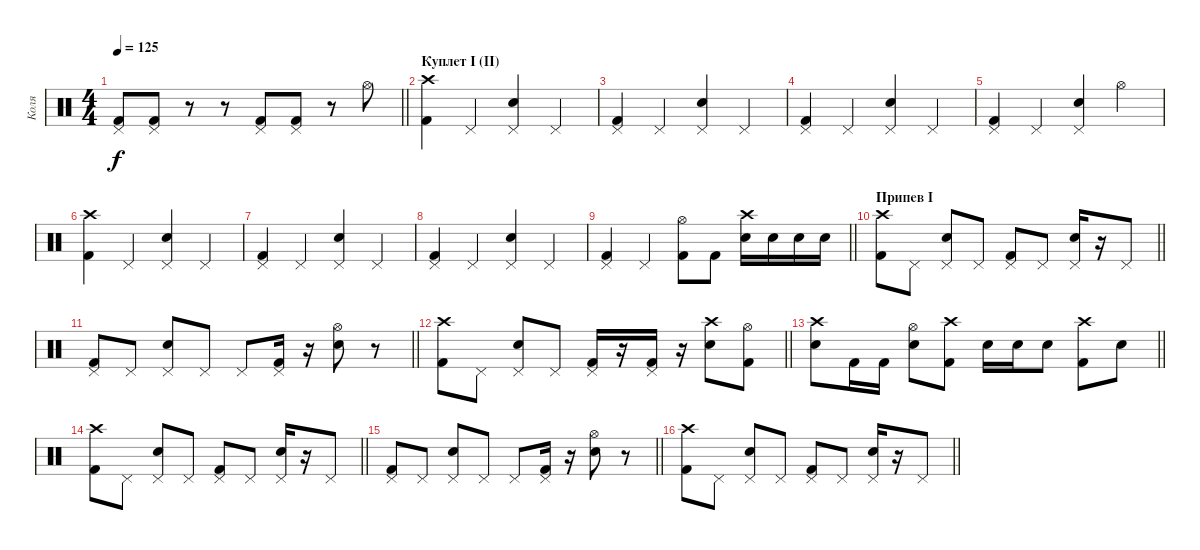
\track ("Коля" "Коля") {instrument percussion}
\staff {score}
\articulation defaults
\ts (4 4)
\tempo 125
\clef neutral
\barLineRight lightlight
\ks c
("Pedal Hi-Hat (hit)" "Kick (hit) 2").8{dy f} ("Pedal Hi-Hat (hit)" "Kick (hit) 2").8 r.8 r.8 ("Pedal Hi-Hat (hit)" "Kick (hit) 2").8 ("Pedal Hi-Hat (hit)" "Kick (hit) 2").8 r.8 "Hi-Hat (open)".8 |
\section ("" "Куплет I (II)")
("Kick (hit) 2" "Crash high (hit)").4 "Pedal Hi-Hat (hit)".4 ("Electric Snare (hit)" "Pedal Hi-Hat (hit)").4 "Pedal Hi-Hat (hit)".4 |
("Kick (hit) 2" "Pedal Hi-Hat (hit)").4 "Pedal Hi-Hat (hit)".4 ("Electric Snare (hit)" "Pedal Hi-Hat (hit)").4 "Pedal Hi-Hat (hit)".4 |
("Kick (hit) 2" "Pedal Hi-Hat (hit)").4 "Pedal Hi-Hat (hit)".4 ("Electric Snare (hit)" "Pedal Hi-Hat (hit)").4 "Pedal Hi-Hat (hit)".4 |
("Kick (hit) 2" "Pedal Hi-Hat (hit)").4 "Pedal Hi-Hat (hit)".4 ("Electric Snare (hit)" "Pedal Hi-Hat (hit)").4 "Hi-Hat (open)".4 |
("Kick (hit) 2" "Crash high (hit)").4 "Pedal Hi-Hat (hit)".4 ("Electric Snare (hit)" "Pedal Hi-Hat (hit)").4 "Pedal Hi-Hat (hit)".4 |
("Kick (hit) 2" "Pedal Hi-Hat (hit)").4 "Pedal Hi-Hat (hit)".4 ("Electric Snare (hit)" "Pedal Hi-Hat (hit)").4 "Pedal Hi-Hat (hit)".4 |
("Kick (hit) 2" "Pedal Hi-Hat (hit)").4 "Pedal Hi-Hat (hit)".4 ("Electric Snare (hit)" "Pedal Hi-Hat (hit)").4 "Pedal Hi-Hat (hit)".4 |
\barLineRight lightlight
("Kick (hit) 2" "Pedal Hi-Hat (hit)").4 "Pedal Hi-Hat (hit)".4 ("Kick (hit) 2" "Hi-Hat (open)").8 "Kick (hit) 2".8 ("Electric Snare (hit)" "Crash high (hit)").16 "Electric Snare (hit)".16 "Electric Snare (hit)".16 "Electric Snare (hit)".16 |
\section ("" "Припев I")
\barLineRight lightlight
("Kick (hit) 2" "Crash high (hit)").8 "Pedal Hi-Hat (hit)".8 ("Electric Snare (hit)" "Pedal Hi-Hat (hit)").8 "Pedal Hi-Hat (hit)".8 ("Kick (hit) 2" "Pedal Hi-Hat (hit)").8 "Pedal Hi-Hat (hit)".8 ("Electric Snare (hit)" "Pedal Hi-Hat (hit)").16 r.16 "Pedal Hi-Hat (hit)".8 |
\barLineRight lightlight
("Kick (hit) 2" "Pedal Hi-Hat (hit)").8 "Pedal Hi-Hat (hit)".8 ("Electric Snare (hit)" "Pedal Hi-Hat (hit)").8 "Pedal Hi-Hat (hit)".8 "Pedal Hi-Hat (hit)".8 ("Kick (hit) 2" "Pedal Hi-Hat (hit)").16 r.16 ("Electric Snare (hit)" "Hi-Hat (open)").8 r.8 |
\barLineRight lightlight
("Kick (hit) 2" "Crash high (hit)").8 "Pedal Hi-Hat (hit)".8 ("Electric Snare (hit)" "Pedal Hi-Hat (hit)").8 "Pedal Hi-Hat (hit)".8 ("Kick (hit) 2" "Pedal Hi-Hat (hit)").16 r.16 ("Kick (hit) 2" "Pedal Hi-Hat (hit)").16 r.16 ("Electric Snare (hit)" "Crash high (hit)").8 ("Kick (hit) 2" "Hi-Hat (open)").8 |
\barLineRight lightlight
("Electric Snare (hit)" "Crash high (hit)").8 "Kick (hit) 2".16 "Kick (hit) 2".16 ("Electric Snare (hit)" "Hi-Hat (open)").8 ("Kick (hit) 2" "Crash high (hit)").8 "Electric Snare (hit)".16 "Electric Snare (hit)".16 "Electric Snare (hit)".8 ("Kick (hit) 2" "Crash high (hit)").8 "Electric Snare (hit)".8 |
\barLineRight lightlight
("Kick (hit) 2" "Crash high (hit)").8 "Pedal Hi-Hat (hit)".8 ("Electric Snare (hit)" "Pedal Hi-Hat (hit)").8 "Pedal Hi-Hat (hit)".8 ("Kick (hit) 2" "Pedal Hi-Hat (hit)").8 "Pedal Hi-Hat (hit)".8 ("Electric Snare (hit)" "Pedal Hi-Hat (hit)").16 r.16 "Pedal Hi-Hat (hit)".8 |
\barLineRight lightlight
("Kick (hit) 2" "Pedal Hi-Hat (hit)").8 "Pedal Hi-Hat (hit)".8 ("Electric Snare (hit)" "Pedal Hi-Hat (hit)").8 "Pedal Hi-Hat (hit)".8 "Pedal Hi-Hat (hit)".8 ("Kick (hit) 2" "Pedal Hi-Hat (hit)").16 r.16 ("Electric Snare (hit)" "Hi-Hat (open)").8 r.8 |
\barLineRight lightlight
("Kick (hit) 2" "Crash high (hit)").8 "Pedal Hi-Hat (hit)".8 ("Electric Snare (hit)" "Pedal Hi-Hat (hit)").8 "Pedal Hi-Hat (hit)".8 ("Kick (hit) 2" "Pedal Hi-Hat (hit)").8 "Pedal Hi-Hat (hit)".8 ("Electric Snare (hit)" "Pedal Hi-Hat (hit)").16 r.16 "Pedal Hi-Hat (hit)".8
